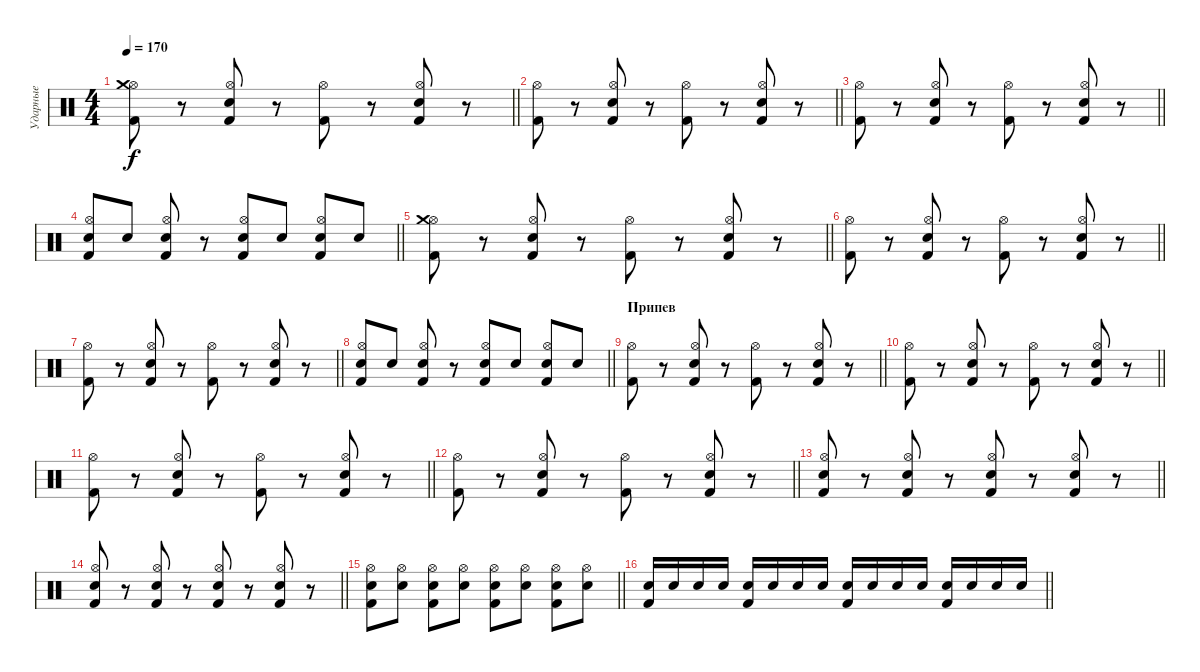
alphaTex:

\track ("Ударные" "Ударные") {instrument percussion}
\staff {score}
\articulation defaults
\ts (4 4)
\tempo 170
\clef neutral
\barLineRight lightlight
\ks c
("Kick (hit) 2" "Hi-Hat (open)" "Crash medium (hit)").8{dy f} r.8 ("Kick (hit) 2" "Hi-Hat (open)" "Electric Snare (hit)").8 r.8 ("Kick (hit) 2" "Hi-Hat (open)").8 r.8 ("Kick (hit) 2" "Hi-Hat (open)" "Electric Snare (hit)").8 r.8 |
\barLineRight lightlight
("Kick (hit) 2" "Hi-Hat (open)").8 r.8 ("Kick (hit) 2" "Hi-Hat (open)" "Electric Snare (hit)").8 r.8 ("Kick (hit) 2" "Hi-Hat (open)").8 r.8 ("Kick (hit) 2" "Hi-Hat (open)" "Electric Snare (hit)").8 r.8 |
\barLineRight lightlight
("Kick (hit) 2" "Hi-Hat (open)").8 r.8 ("Kick (hit) 2" "Hi-Hat (open)" "Electric Snare (hit)").8 r.8 ("Kick (hit) 2" "Hi-Hat (open)").8 r.8 ("Kick (hit) 2" "Hi-Hat (open)" "Electric Snare (hit)").8 r.8 |
\barLineRight lightlight
("Kick (hit) 2" "Hi-Hat (open)" "Electric Snare (hit)").8 "Electric Snare (hit)".8 ("Kick (hit) 2" "Hi-Hat (open)" "Electric Snare (hit)").8 r.8 ("Kick (hit) 2" "Hi-Hat (open)" "Electric Snare (hit)").8 "Electric Snare (hit)".8 ("Kick (hit) 2" "Hi-Hat (open)" "Electric Snare (hit)").8 "Electric Snare (hit)".8 |
\barLineRight lightlight
("Kick (hit) 2" "Hi-Hat (open)" "Crash medium (hit)").8 r.8 ("Kick (hit) 2" "Hi-Hat (open)" "Electric Snare (hit)").8 r.8 ("Kick (hit) 2" "Hi-Hat (open)").8 r.8 ("Kick (hit) 2" "Hi-Hat (open)" "Electric Snare (hit)").8 r.8 |
\barLineRight lightlight
("Kick (hit) 2" "Hi-Hat (open)").8 r.8 ("Kick (hit) 2" "Hi-Hat (open)" "Electric Snare (hit)").8 r.8 ("Kick (hit) 2" "Hi-Hat (open)").8 r.8 ("Kick (hit) 2" "Hi-Hat (open)" "Electric Snare (hit)").8 r.8 |
\barLineRight lightlight
("Kick (hit) 2" "Hi-Hat (open)").8 r.8 ("Kick (hit) 2" "Hi-Hat (open)" "Electric Snare (hit)").8 r.8 ("Kick (hit) 2" "Hi-Hat (open)").8 r.8 ("Kick (hit) 2" "Hi-Hat (open)" "Electric Snare (hit)").8 r.8 |
\barLineRight lightlight
("Kick (hit) 2" "Hi-Hat (open)" "Electric Snare (hit)").8 "Electric Snare (hit)".8 ("Kick (hit) 2" "Hi-Hat (open)" "Electric Snare (hit)").8 r.8 ("Kick (hit) 2" "Hi-Hat (open)" "Electric Snare (hit)").8 "Electric Snare (hit)".8 ("Kick (hit) 2" "Hi-Hat (open)" "Electric Snare (hit)").8 "Electric Snare (hit)".8 |
\section ("" "Припев")
\barLineRight lightlight
("Kick (hit) 2" "Hi-Hat (open)").8 r.8 ("Kick (hit) 2" "Hi-Hat (open)" "Electric Snare (hit)").8 r.8 ("Kick (hit) 2" "Hi-Hat (open)").8 r.8 ("Kick (hit) 2" "Hi-Hat (open)" "Electric Snare (hit)").8 r.8 |
\barLineRight lightlight
("Kick (hit) 2" "Hi-Hat (open)").8 r.8 ("Kick (hit) 2" "Hi-Hat (open)" "Electric Snare (hit)").8 r.8 ("Kick (hit) 2" "Hi-Hat (open)").8 r.8 ("Kick (hit) 2" "Hi-Hat (open)" "Electric Snare (hit)").8 r.8 |
\barLineRight lightlight
("Kick (hit) 2" "Hi-Hat (open)").8 r.8 ("Kick (hit) 2" "Hi-Hat (open)" "Electric Snare (hit)").8 r.8 ("Kick (hit) 2" "Hi-Hat (open)").8 r.8 ("Kick (hit) 2" "Hi-Hat (open)" "Electric Snare (hit)").8 r.8 |
\barLineRight lightlight
("Kick (hit) 2" "Hi-Hat (open)").8 r.8 ("Kick (hit) 2" "Hi-Hat (open)" "Electric Snare (hit)").8 r.8 ("Kick (hit) 2" "Hi-Hat (open)").8 r.8 ("Kick (hit) 2" "Hi-Hat (open)" "Electric Snare (hit)").8 r.8 |
\barLineRight lightlight
("Kick (hit) 2" "Hi-Hat (open)" "Electric Snare (hit)").8 r.8 ("Kick (hit) 2" "Hi-Hat (open)" "Electric Snare (hit)").8 r.8 ("Kick (hit) 2" "Hi-Hat (open)" "Electric Snare (hit)").8 r.8 ("Kick (hit) 2" "Hi-Hat (open)" "Electric Snare (hit)").8 r.8 |
\barLineRight lightlight
("Kick (hit) 2" "Hi-Hat (open)" "Electric Snare (hit)").8 r.8 ("Kick (hit) 2" "Hi-Hat (open)" "Electric Snare (hit)").8 r.8 ("Kick (hit) 2" "Hi-Hat (open)" "Electric Snare (hit)").8 r.8 ("Kick (hit) 2" "Hi-Hat (open)" "Electric Snare (hit)").8 r.8 |
\barLineRight lightlight
("Kick (hit) 2" "Hi-Hat (open)" "Electric Snare (hit)").8 ("Hi-Hat (open)" "Electric Snare (hit)").8 ("Kick (hit) 2" "Hi-Hat (open)" "Electric Snare (hit)").8 ("Hi-Hat (open)" "Electric Snare (hit)").8 ("Kick (hit) 2" "Hi-Hat (open)" "Electric Snare (hit)").8 ("Hi-Hat (open)" "Electric Snare (hit)").8 ("Kick (hit) 2" "Hi-Hat (open)" "Electric Snare (hit)").8 ("Hi-Hat (open)" "Electric Snare (hit)").8 |
\barLineRight lightlight
("Kick (hit) 2" "Electric Snare (hit)").16 "Electric Snare (hit)".16 "Electric Snare (hit)".16 "Electric Snare (hit)".16 ("Kick (hit) 2" "Electric Snare (hit)").16 "Electric Snare (hit)".16 "Electric Snare (hit)".16 "Electric Snare (hit)".16 ("Kick (hit) 2" "Electric Snare (hit)").16 "Electric Snare (hit)".16 "Electric Snare (hit)".16 "Electric Snare (hit)".16 ("Kick (hit) 2" "Electric Snare (hit)").16 "Electric Snare (hit)".16 "Electric Snare (hit)".16 "Electric Snare (hit)".16
